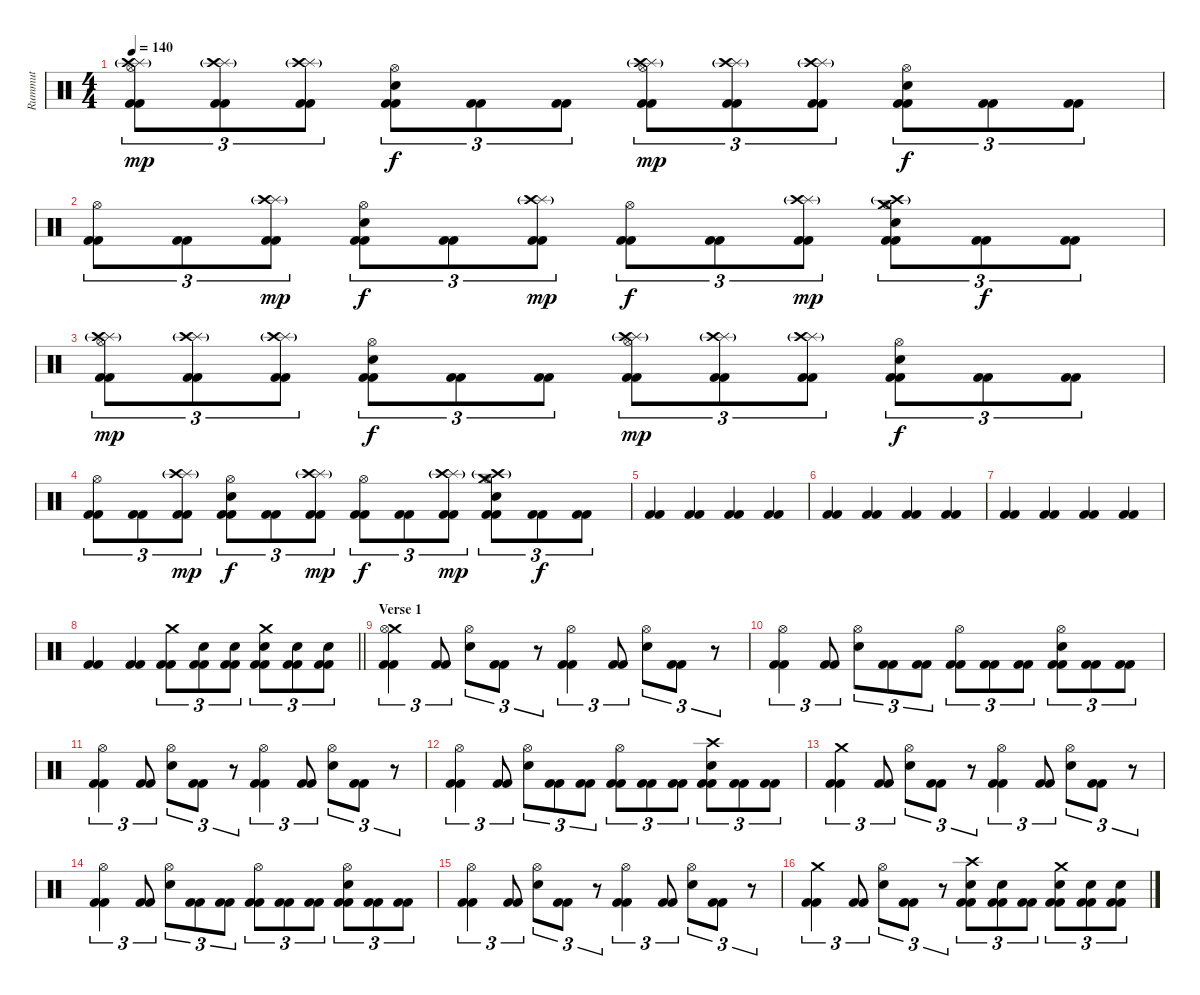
\track ("Rummut" "Rummut") {instrument percussion}
\staff {score}
\articulation defaults
\ts (4 4)
\tempo 140
\clef neutral
\ks c
("Splash (hit)" "Crash high (hit)"{g} "Hi-Hat (open)" "Kick (hit) 2" "Kick (hit) 2").8{tu (3 2) dy mp} ("Splash (hit)" "Crash high (hit)"{g} "Kick (hit) 2" "Kick (hit) 2").8{tu (3 2)} ("Splash (hit)" "Crash high (hit)"{g} "Kick (hit) 2" "Kick (hit) 2").8{tu (3 2)} ("Hi-Hat (open)" "Electric Snare (hit)" "Kick (hit) 2" "Kick (hit) 2").8{tu (3 2) dy f} ("Kick (hit) 2" "Kick (hit) 2").8{tu (3 2)} ("Kick (hit) 2" "Kick (hit) 2").8{tu (3 2)} ("Splash (hit)" "Crash high (hit)"{g} "Hi-Hat (open)" "Kick (hit) 2" "Kick (hit) 2").8{tu (3 2) dy mp} ("Splash (hit)" "Crash high (hit)"{g} "Kick (hit) 2" "Kick (hit) 2").8{tu (3 2)} ("Splash (hit)" "Crash high (hit)"{g} "Kick (hit) 2" "Kick (hit) 2").8{tu (3 2)} ("Hi-Hat (open)" "Electric Snare (hit)" "Kick (hit) 2" "Kick (hit) 2").8{tu (3 2) dy f} ("Kick (hit) 2" "Kick (hit) 2").8{tu (3 2)} ("Kick (hit) 2" "Kick (hit) 2").8{tu (3 2)} |
("Hi-Hat (open)" "Kick (hit) 2" "Kick (hit) 2").8{tu (3 2)} ("Kick (hit) 2" "Kick (hit) 2").8{tu (3 2)} ("Splash (hit)" "Crash high (hit)"{g} "Kick (hit) 2" "Kick (hit) 2").8{tu (3 2) dy mp} ("Hi-Hat (open)" "Electric Snare (hit)" "Kick (hit) 2" "Kick (hit) 2").8{tu (3 2) dy f} ("Kick (hit) 2" "Kick (hit) 2").8{tu (3 2)} ("Splash (hit)" "Crash high (hit)"{g} "Kick (hit) 2" "Kick (hit) 2").8{tu (3 2) dy mp} ("Hi-Hat (open)" "Kick (hit) 2" "Kick (hit) 2").8{tu (3 2) dy f} ("Kick (hit) 2" "Kick (hit) 2").8{tu (3 2)} ("Splash (hit)" "Crash high (hit)"{g} "Kick (hit) 2" "Kick (hit) 2").8{tu (3 2) dy mp} ("Crash medium (hit)" "Crash high (hit)"{g} "Hi-Hat (open)" "Electric Snare (hit)" "Kick (hit) 2" "Kick (hit) 2").8{tu (3 2)} ("Kick (hit) 2" "Kick (hit) 2").8{tu (3 2) dy f} ("Kick (hit) 2" "Kick (hit) 2").8{tu (3 2)} |
("Splash (hit)" "Crash high (hit)"{g} "Hi-Hat (open)" "Kick (hit) 2" "Kick (hit) 2").8{tu (3 2) dy mp} ("Splash (hit)" "Crash high (hit)"{g} "Kick (hit) 2" "Kick (hit) 2").8{tu (3 2)} ("Splash (hit)" "Crash high (hit)"{g} "Kick (hit) 2" "Kick (hit) 2").8{tu (3 2)} ("Hi-Hat (open)" "Electric Snare (hit)" "Kick (hit) 2" "Kick (hit) 2").8{tu (3 2) dy f} ("Kick (hit) 2" "Kick (hit) 2").8{tu (3 2)} ("Kick (hit) 2" "Kick (hit) 2").8{tu (3 2)} ("Splash (hit)" "Crash high (hit)"{g} "Hi-Hat (open)" "Kick (hit) 2" "Kick (hit) 2").8{tu (3 2) dy mp} ("Splash (hit)" "Crash high (hit)"{g} "Kick (hit) 2" "Kick (hit) 2").8{tu (3 2)} ("Splash (hit)" "Crash high (hit)"{g} "Kick (hit) 2" "Kick (hit) 2").8{tu (3 2)} ("Hi-Hat (open)" "Electric Snare (hit)" "Kick (hit) 2" "Kick (hit) 2").8{tu (3 2) dy f} ("Kick (hit) 2" "Kick (hit) 2").8{tu (3 2)} ("Kick (hit) 2" "Kick (hit) 2").8{tu (3 2)} |
("Hi-Hat (open)" "Kick (hit) 2" "Kick (hit) 2").8{tu (3 2)} ("Kick (hit) 2" "Kick (hit) 2").8{tu (3 2)} ("Splash (hit)" "Crash high (hit)"{g} "Kick (hit) 2" "Kick (hit) 2").8{tu (3 2) dy mp} ("Hi-Hat (open)" "Electric Snare (hit)" "Kick (hit) 2" "Kick (hit) 2").8{tu (3 2) dy f} ("Kick (hit) 2" "Kick (hit) 2").8{tu (3 2)} ("Splash (hit)" "Crash high (hit)"{g} "Kick (hit) 2" "Kick (hit) 2").8{tu (3 2) dy mp} ("Hi-Hat (open)" "Kick (hit) 2" "Kick (hit) 2").8{tu (3 2) dy f} ("Kick (hit) 2" "Kick (hit) 2").8{tu (3 2)} ("Splash (hit)" "Crash high (hit)"{g} "Kick (hit) 2" "Kick (hit) 2").8{tu (3 2) dy mp} ("Crash medium (hit)" "Crash high (hit)"{g} "Hi-Hat (open)" "Electric Snare (hit)" "Kick (hit) 2" "Kick (hit) 2").8{tu (3 2)} ("Kick (hit) 2" "Kick (hit) 2").8{tu (3 2) dy f} ("Kick (hit) 2" "Kick (hit) 2").8{tu (3 2)} |
("Kick (hit) 2" "Kick (hit) 2").4 ("Kick (hit) 2" "Kick (hit) 2").4 ("Kick (hit) 2" "Kick (hit) 2").4 ("Kick (hit) 2" "Kick (hit) 2").4 |
("Kick (hit) 2" "Kick (hit) 2").4 ("Kick (hit) 2" "Kick (hit) 2").4 ("Kick (hit) 2" "Kick (hit) 2").4 ("Kick (hit) 2" "Kick (hit) 2").4 |
("Kick (hit) 2" "Kick (hit) 2").4 ("Kick (hit) 2" "Kick (hit) 2").4 ("Kick (hit) 2" "Kick (hit) 2").4 ("Kick (hit) 2" "Kick (hit) 2").4 |
\barLineRight lightlight
("Kick (hit) 2" "Kick (hit) 2").4 ("Kick (hit) 2" "Kick (hit) 2").4 ("Crash medium (hit)" "Kick (hit) 2" "Kick (hit) 2").8{tu (3 2)} ("Electric Snare (hit)" "Kick (hit) 2" "Kick (hit) 2").8{tu (3 2)} ("Electric Snare (hit)" "Kick (hit) 2" "Kick (hit) 2").8{tu (3 2)} ("Crash medium (hit)" "Electric Snare (hit)" "Kick (hit) 2" "Kick (hit) 2").8{tu (3 2)} ("Electric Snare (hit)" "Kick (hit) 2" "Kick (hit) 2").8{tu (3 2)} ("Electric Snare (hit)" "Kick (hit) 2" "Kick (hit) 2").8{tu (3 2)} |
\section ("" "Verse 1")
("Crash medium (hit)" "Hi-Hat (open)" "Kick (hit) 2" "Kick (hit) 2").4{tu (3 2)} ("Kick (hit) 2" "Kick (hit) 2").8{tu (3 2)} ("Hi-Hat (open)" "Electric Snare (hit)").8{tu (3 2)} ("Kick (hit) 2" "Kick (hit) 2").8{tu (3 2)} r.8{tu (3 2)} ("Hi-Hat (open)" "Kick (hit) 2" "Kick (hit) 2").4{tu (3 2)} ("Kick (hit) 2" "Kick (hit) 2").8{tu (3 2)} ("Hi-Hat (open)" "Electric Snare (hit)").8{tu (3 2)} ("Kick (hit) 2" "Kick (hit) 2").8{tu (3 2)} r.8{tu (3 2)} |
("Hi-Hat (open)" "Kick (hit) 2" "Kick (hit) 2").4{tu (3 2)} ("Kick (hit) 2" "Kick (hit) 2").8{tu (3 2)} ("Hi-Hat (open)" "Electric Snare (hit)").8{tu (3 2)} ("Kick (hit) 2" "Kick (hit) 2").8{tu (3 2)} ("Kick (hit) 2" "Kick (hit) 2").8{tu (3 2)} ("Hi-Hat (open)" "Kick (hit) 2" "Kick (hit) 2").8{tu (3 2)} ("Kick (hit) 2" "Kick (hit) 2").8{tu (3 2)} ("Kick (hit) 2" "Kick (hit) 2").8{tu (3 2)} ("Hi-Hat (open)" "Electric Snare (hit)" "Kick (hit) 2" "Kick (hit) 2").8{tu (3 2)} ("Kick (hit) 2" "Kick (hit) 2").8{tu (3 2)} ("Kick (hit) 2" "Kick (hit) 2").8{tu (3 2)} |
("Hi-Hat (open)" "Kick (hit) 2" "Kick (hit) 2").4{tu (3 2)} ("Kick (hit) 2" "Kick (hit) 2").8{tu (3 2)} ("Hi-Hat (open)" "Electric Snare (hit)").8{tu (3 2)} ("Kick (hit) 2" "Kick (hit) 2").8{tu (3 2)} r.8{tu (3 2)} ("Hi-Hat (open)" "Kick (hit) 2" "Kick (hit) 2").4{tu (3 2)} ("Kick (hit) 2" "Kick (hit) 2").8{tu (3 2)} ("Hi-Hat (open)" "Electric Snare (hit)").8{tu (3 2)} ("Kick (hit) 2" "Kick (hit) 2").8{tu (3 2)} r.8{tu (3 2)} |
("Hi-Hat (open)" "Kick (hit) 2" "Kick (hit) 2").4{tu (3 2)} ("Kick (hit) 2" "Kick (hit) 2").8{tu (3 2)} ("Hi-Hat (open)" "Electric Snare (hit)").8{tu (3 2)} ("Kick (hit) 2" "Kick (hit) 2").8{tu (3 2)} ("Kick (hit) 2" "Kick (hit) 2").8{tu (3 2)} ("Hi-Hat (open)" "Kick (hit) 2" "Kick (hit) 2").8{tu (3 2)} ("Kick (hit) 2" "Kick (hit) 2").8{tu (3 2)} ("Kick (hit) 2" "Kick (hit) 2").8{tu (3 2)} ("Crash high (hit)" "Electric Snare (hit)" "Kick (hit) 2" "Kick (hit) 2").8{tu (3 2)} ("Kick (hit) 2" "Kick (hit) 2").8{tu (3 2)} ("Kick (hit) 2" "Kick (hit) 2").8{tu (3 2)} |
("Crash medium (hit)" "Kick (hit) 2" "Kick (hit) 2").4{tu (3 2)} ("Kick (hit) 2" "Kick (hit) 2").8{tu (3 2)} ("Hi-Hat (open)" "Electric Snare (hit)").8{tu (3 2)} ("Kick (hit) 2" "Kick (hit) 2").8{tu (3 2)} r.8{tu (3 2)} ("Hi-Hat (open)" "Kick (hit) 2" "Kick (hit) 2").4{tu (3 2)} ("Kick (hit) 2" "Kick (hit) 2").8{tu (3 2)} ("Hi-Hat (open)" "Electric Snare (hit)").8{tu (3 2)} ("Kick (hit) 2" "Kick (hit) 2").8{tu (3 2)} r.8{tu (3 2)} |
("Hi-Hat (open)" "Kick (hit) 2" "Kick (hit) 2").4{tu (3 2)} ("Kick (hit) 2" "Kick (hit) 2").8{tu (3 2)} ("Hi-Hat (open)" "Electric Snare (hit)").8{tu (3 2)} ("Kick (hit) 2" "Kick (hit) 2").8{tu (3 2)} ("Kick (hit) 2" "Kick (hit) 2").8{tu (3 2)} ("Hi-Hat (open)" "Kick (hit) 2" "Kick (hit) 2").8{tu (3 2)} ("Kick (hit) 2" "Kick (hit) 2").8{tu (3 2)} ("Kick (hit) 2" "Kick (hit) 2").8{tu (3 2)} ("Hi-Hat (open)" "Electric Snare (hit)" "Kick (hit) 2" "Kick (hit) 2").8{tu (3 2)} ("Kick (hit) 2" "Kick (hit) 2").8{tu (3 2)} ("Kick (hit) 2" "Kick (hit) 2").8{tu (3 2)} |
("Hi-Hat (open)" "Kick (hit) 2" "Kick (hit) 2").4{tu (3 2)} ("Kick (hit) 2" "Kick (hit) 2").8{tu (3 2)} ("Hi-Hat (open)" "Electric Snare (hit)").8{tu (3 2)} ("Kick (hit) 2" "Kick (hit) 2").8{tu (3 2)} r.8{tu (3 2)} ("Hi-Hat (open)" "Kick (hit) 2" "Kick (hit) 2").4{tu (3 2)} ("Kick (hit) 2" "Kick (hit) 2").8{tu (3 2)} ("Hi-Hat (open)" "Electric Snare (hit)").8{tu (3 2)} ("Kick (hit) 2" "Kick (hit) 2").8{tu (3 2)} r.8{tu (3 2)} |
("Crash medium (hit)" "Kick (hit) 2" "Kick (hit) 2").4{tu (3 2)} ("Kick (hit) 2" "Kick (hit) 2").8{tu (3 2)} ("Hi-Hat (open)" "Electric Snare (hit)").8{tu (3 2)} ("Kick (hit) 2" "Kick (hit) 2").8{tu (3 2)} r.8{tu (3 2)} ("Crash high (hit)" "Electric Snare (hit)" "Kick (hit) 2" "Kick (hit) 2").8{tu (3 2)} ("Electric Snare (hit)" "Kick (hit) 2" "Kick (hit) 2").8{tu (3 2)} ("Kick (hit) 2" "Kick (hit) 2").8{tu (3 2)} ("Crash medium (hit)" "Electric Snare (hit)" "Kick (hit) 2" "Kick (hit) 2").8{tu (3 2)} ("Electric Snare (hit)" "Kick (hit) 2" "Kick (hit) 2").8{tu (3 2)} ("Electric Snare (hit)" "Kick (hit) 2" "Kick (hit) 2").8{tu (3 2)}
